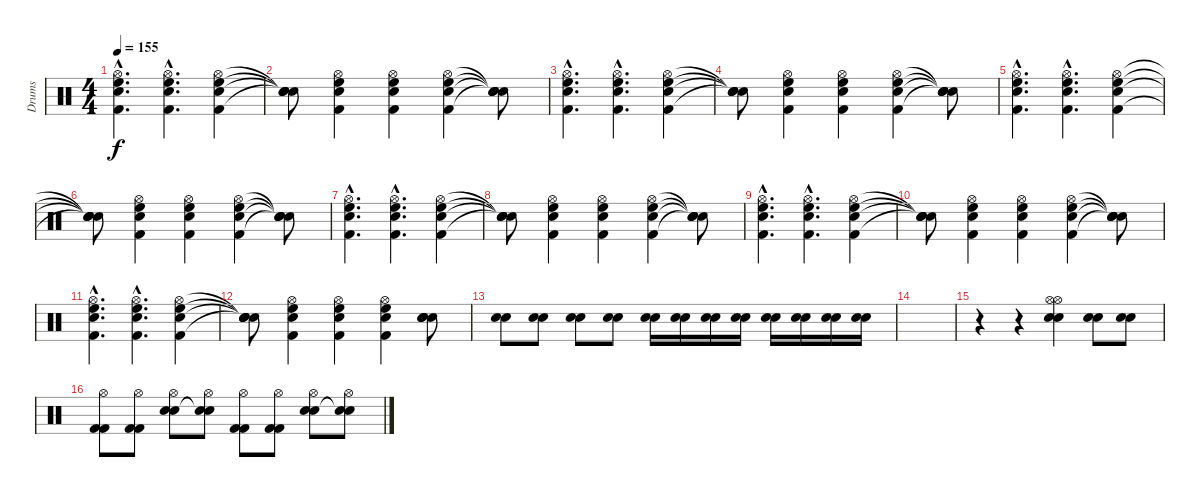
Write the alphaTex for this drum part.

\track ("Drums" "Drums") {instrument percussion}
\staff {score}
\articulation defaults
\ts (4 4)
\tempo 155
\clef neutral
\ks c
("Hi-Hat (open)"{hac} "High Floor Tom (hit)"{hac} "Electric Snare (hit)"{hac} "Kick (hit) 2"{hac}).4{d dy f} ("Hi-Hat (open)"{hac} "High Floor Tom (hit)"{hac} "Electric Snare (hit)"{hac} "Kick (hit) 2"{hac}).4{d} ("Hi-Hat (open)" "High Floor Tom (hit)" "Electric Snare (hit)" "Kick (hit) 2").4 |
("Snare (hit)"{t} "Snare (hit)"{t} "Snare (hit)"{t} "Snare (hit)"{t}).8 ("Hi-Hat (open)" "High Floor Tom (hit)" "Electric Snare (hit)" "Kick (hit) 2").4 ("Hi-Hat (open)" "High Floor Tom (hit)" "Electric Snare (hit)" "Kick (hit) 2").4 ("Hi-Hat (open)" "High Floor Tom (hit)" "Electric Snare (hit)" "Kick (hit) 2").4 ("Snare (hit)"{t} "Snare (hit)"{t} "Snare (hit)"{t} "Snare (hit)"{t}).8 |
("Hi-Hat (open)"{hac} "High Floor Tom (hit)"{hac} "Electric Snare (hit)"{hac} "Kick (hit) 2"{hac}).4{d} ("Hi-Hat (open)"{hac} "High Floor Tom (hit)"{hac} "Electric Snare (hit)"{hac} "Kick (hit) 2"{hac}).4{d} ("Hi-Hat (open)" "High Floor Tom (hit)" "Electric Snare (hit)" "Kick (hit) 2").4 |
("Snare (hit)"{t} "Snare (hit)"{t} "Snare (hit)"{t} "Snare (hit)"{t}).8 ("Hi-Hat (open)" "High Floor Tom (hit)" "Electric Snare (hit)" "Kick (hit) 2").4 ("Hi-Hat (open)" "High Floor Tom (hit)" "Electric Snare (hit)" "Kick (hit) 2").4 ("Hi-Hat (open)" "High Floor Tom (hit)" "Electric Snare (hit)" "Kick (hit) 2").4 ("Snare (hit)"{t} "Snare (hit)"{t} "Snare (hit)"{t} "Snare (hit)"{t}).8 |
("Hi-Hat (open)"{hac} "High Floor Tom (hit)"{hac} "Electric Snare (hit)"{hac} "Kick (hit) 2"{hac}).4{d} ("Hi-Hat (open)"{hac} "High Floor Tom (hit)"{hac} "Electric Snare (hit)"{hac} "Kick (hit) 2"{hac}).4{d} ("Hi-Hat (open)" "High Floor Tom (hit)" "Electric Snare (hit)" "Kick (hit) 2").4 |
("Snare (hit)"{t} "Snare (hit)"{t} "Snare (hit)"{t} "Snare (hit)"{t}).8 ("Hi-Hat (open)" "High Floor Tom (hit)" "Electric Snare (hit)" "Kick (hit) 2").4 ("Hi-Hat (open)" "High Floor Tom (hit)" "Electric Snare (hit)" "Kick (hit) 2").4 ("Hi-Hat (open)" "High Floor Tom (hit)" "Electric Snare (hit)" "Kick (hit) 2").4 ("Snare (hit)"{t} "Snare (hit)"{t} "Snare (hit)"{t} "Snare (hit)"{t}).8 |
("Hi-Hat (open)"{hac} "High Floor Tom (hit)"{hac} "Electric Snare (hit)"{hac} "Kick (hit) 2"{hac}).4{d} ("Hi-Hat (open)"{hac} "High Floor Tom (hit)"{hac} "Electric Snare (hit)"{hac} "Kick (hit) 2"{hac}).4{d} ("Hi-Hat (open)" "High Floor Tom (hit)" "Electric Snare (hit)" "Kick (hit) 2").4 |
("Snare (hit)"{t} "Snare (hit)"{t} "Snare (hit)"{t} "Snare (hit)"{t}).8 ("Hi-Hat (open)" "High Floor Tom (hit)" "Electric Snare (hit)" "Kick (hit) 2").4 ("Hi-Hat (open)" "High Floor Tom (hit)" "Electric Snare (hit)" "Kick (hit) 2").4 ("Hi-Hat (open)" "High Floor Tom (hit)" "Electric Snare (hit)" "Kick (hit) 2").4 ("Snare (hit)"{t} "Snare (hit)"{t} "Snare (hit)"{t} "Snare (hit)"{t}).8 |
("Hi-Hat (open)"{hac} "High Floor Tom (hit)"{hac} "Electric Snare (hit)"{hac} "Kick (hit) 2"{hac}).4{d} ("Hi-Hat (open)"{hac} "High Floor Tom (hit)"{hac} "Electric Snare (hit)"{hac} "Kick (hit) 2"{hac}).4{d} ("Hi-Hat (open)" "High Floor Tom (hit)" "Electric Snare (hit)" "Kick (hit) 2").4 |
("Snare (hit)"{t} "Snare (hit)"{t} "Snare (hit)"{t} "Snare (hit)"{t}).8 ("Hi-Hat (open)" "High Floor Tom (hit)" "Electric Snare (hit)" "Kick (hit) 2").4 ("Hi-Hat (open)" "High Floor Tom (hit)" "Electric Snare (hit)" "Kick (hit) 2").4 ("Hi-Hat (open)" "High Floor Tom (hit)" "Electric Snare (hit)" "Kick (hit) 2").4 ("Snare (hit)"{t} "Snare (hit)"{t} "Snare (hit)"{t} "Snare (hit)"{t}).8 |
("Hi-Hat (open)"{hac} "High Floor Tom (hit)"{hac} "Electric Snare (hit)"{hac} "Kick (hit) 2"{hac}).4{d} ("Hi-Hat (open)"{hac} "High Floor Tom (hit)"{hac} "Electric Snare (hit)"{hac} "Kick (hit) 2"{hac}).4{d} ("Hi-Hat (open)" "High Floor Tom (hit)" "Electric Snare (hit)" "Kick (hit) 2").4 |
("Snare (hit)"{t} "Snare (hit)"{t} "Snare (hit)"{t} "Snare (hit)"{t}).8 ("Hi-Hat (open)" "High Floor Tom (hit)" "Electric Snare (hit)" "Kick (hit) 2").4 ("Hi-Hat (open)" "High Floor Tom (hit)" "Electric Snare (hit)" "Kick (hit) 2").4 ("Hi-Hat (open)" "High Floor Tom (hit)" "Electric Snare (hit)" "Kick (hit) 2").4 ("Electric Snare (hit)" "Electric Snare (hit)" "Electric Snare (hit)" "Electric Snare (hit)").8 |
("Electric Snare (hit)" "Electric Snare (hit)").8 ("Electric Snare (hit)" "Electric Snare (hit)").8 ("Electric Snare (hit)" "Electric Snare (hit)").8 ("Electric Snare (hit)" "Electric Snare (hit)").8 ("Electric Snare (hit)" "Electric Snare (hit)").16 ("Electric Snare (hit)" "Electric Snare (hit)").16 ("Electric Snare (hit)" "Electric Snare (hit)").16 ("Electric Snare (hit)" "Electric Snare (hit)").16 ("Electric Snare (hit)" "Electric Snare (hit)").16 ("Electric Snare (hit)" "Electric Snare (hit)").16 ("Electric Snare (hit)" "Electric Snare (hit)").16 ("Electric Snare (hit)" "Electric Snare (hit)").16 |
|
r.4 r.4 ("Hi-Hat (open)" "Hi-Hat (open)" "Electric Snare (hit)" "Electric Snare (hit)").4 ("Electric Snare (hit)" "Electric Snare (hit)").8 ("Electric Snare (hit)" "Electric Snare (hit)").8 |
("Hi-Hat (open)" "Kick (hit) 2" "Kick (hit) 2").8 ("Hi-Hat (open)" "Kick (hit) 2" "Kick (hit) 2").8 ("Hi-Hat (open)" "Electric Snare (hit)" "Electric Snare (hit)").8 ("Hi-Hat (open)" "Snare (hit)"{t} "Snare (hit)"{t}).8 ("Hi-Hat (open)" "Kick (hit) 2" "Kick (hit) 2").8 ("Hi-Hat (open)" "Kick (hit) 2" "Kick (hit) 2").8 ("Hi-Hat (open)" "Electric Snare (hit)" "Electric Snare (hit)").8 ("Hi-Hat (open)" "Snare (hit)"{t} "Snare (hit)"{t}).8
